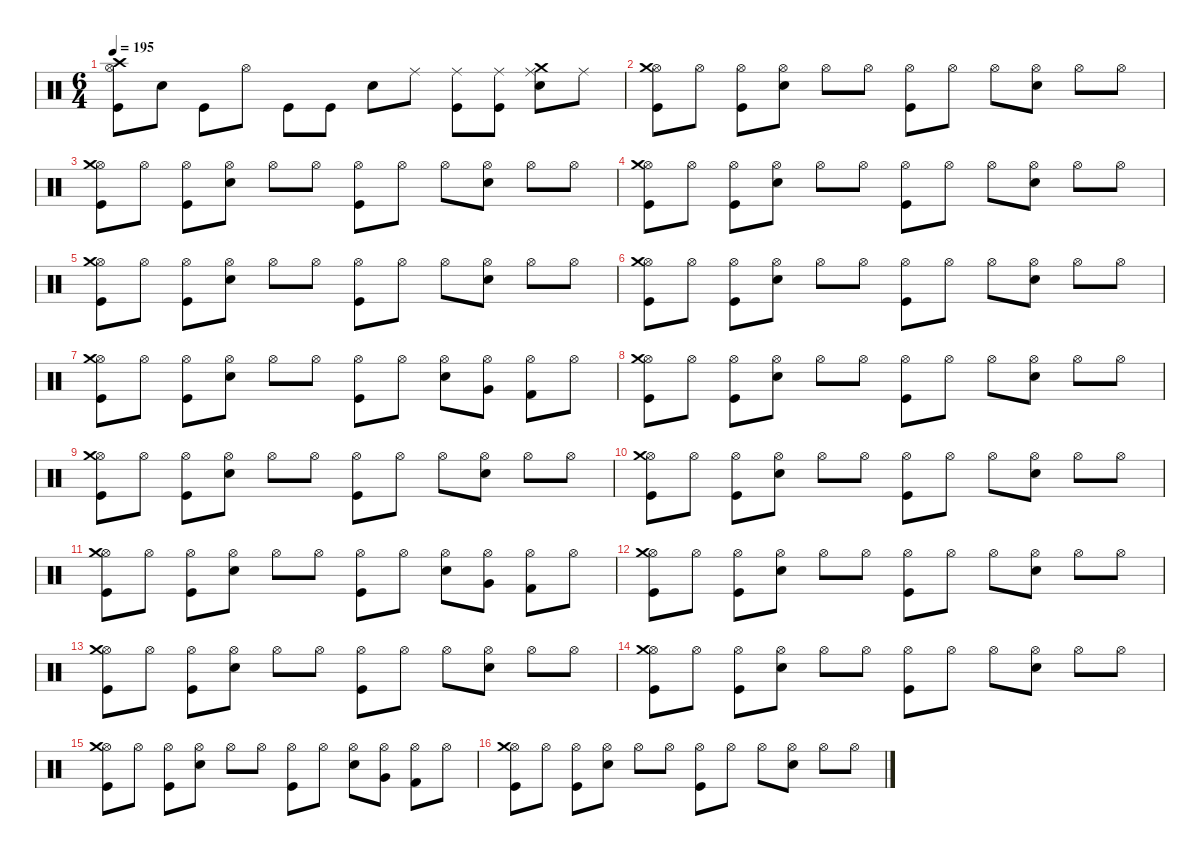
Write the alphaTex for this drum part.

\defaultSystemsLayout 4
\hideDynamics
\bracketExtendMode nobrackets
\singleTrackTrackNamePolicy hidden
\multiTrackTrackNamePolicy hidden
\firstSystemTrackNameMode fullname
\firstSystemTrackNameOrientation horizontal
\otherSystemsTrackNameOrientation horizontal
\track ("Percussion" "drm.") {defaultSystemsLayout 2 instrument percussion}
\staff {score}
\articulation defaults
\ts (6 4)
\tempo 195
\clef neutral
\ks c
("Crash high (hit)" "Hi-Hat (open)" "Kick (hit)").8{dy f beam Down} "Snare (hit) 2".8{beam Down} "Kick (hit)".8{beam Down} "Hi-Hat (open)".8{beam Down} "Kick (hit)".8{beam Down} "Kick (hit)".8{beam Down} "Snare (hit) 2".8{beam Down} "Ride (middle)".8{beam Down} ("Ride (middle)" "Kick (hit)").8{beam Down} ("Ride (middle)" "Kick (hit)").8{beam Down} ("Crash medium (hit)" "Ride (middle)" "Snare (hit) 2").8{beam Down} "Ride (middle)".8{beam Down} |
("Hi-Hat (open)" "Crash medium (hit)" "Kick (hit)").8{beam Down} "Hi-Hat (open)".8{beam Down} ("Hi-Hat (open)" "Kick (hit)").8{beam Down} ("Hi-Hat (open)" "Snare (hit) 2").8{beam Down} "Hi-Hat (open)".8{beam Down} "Hi-Hat (open)".8{beam Down} ("Hi-Hat (open)" "Kick (hit)").8{beam Down} "Hi-Hat (open)".8{beam Down} "Hi-Hat (open)".8{beam Down} ("Hi-Hat (open)" "Snare (hit) 2").8{beam Down} "Hi-Hat (open)".8{beam Down} "Hi-Hat (open)".8{beam Down} |
("Hi-Hat (open)" "Crash medium (hit)" "Kick (hit)").8{beam Down} "Hi-Hat (open)".8{beam Down} ("Hi-Hat (open)" "Kick (hit)").8{beam Down} ("Hi-Hat (open)" "Snare (hit) 2").8{beam Down} "Hi-Hat (open)".8{beam Down} "Hi-Hat (open)".8{beam Down} ("Hi-Hat (open)" "Kick (hit)").8{beam Down} "Hi-Hat (open)".8{beam Down} "Hi-Hat (open)".8{beam Down} ("Hi-Hat (open)" "Snare (hit) 2").8{beam Down} "Hi-Hat (open)".8{beam Down} "Hi-Hat (open)".8{beam Down} |
("Hi-Hat (open)" "Crash medium (hit)" "Kick (hit)").8{beam Down} "Hi-Hat (open)".8{beam Down} ("Hi-Hat (open)" "Kick (hit)").8{beam Down} ("Hi-Hat (open)" "Snare (hit) 2").8{beam Down} "Hi-Hat (open)".8{beam Down} "Hi-Hat (open)".8{beam Down} ("Hi-Hat (open)" "Kick (hit)").8{beam Down} "Hi-Hat (open)".8{beam Down} "Hi-Hat (open)".8{beam Down} ("Hi-Hat (open)" "Snare (hit) 2").8{beam Down} "Hi-Hat (open)".8{beam Down} "Hi-Hat (open)".8{beam Down} |
("Hi-Hat (open)" "Crash medium (hit)" "Kick (hit)").8{beam Down} "Hi-Hat (open)".8{beam Down} ("Hi-Hat (open)" "Kick (hit)").8{beam Down} ("Hi-Hat (open)" "Snare (hit) 2").8{beam Down} "Hi-Hat (open)".8{beam Down} "Hi-Hat (open)".8{beam Down} ("Hi-Hat (open)" "Kick (hit)").8{beam Down} "Hi-Hat (open)".8{beam Down} "Hi-Hat (open)".8{beam Down} ("Hi-Hat (open)" "Snare (hit) 2").8{beam Down} "Hi-Hat (open)".8{beam Down} "Hi-Hat (open)".8{beam Down} |
("Hi-Hat (open)" "Crash medium (hit)" "Kick (hit)").8{beam Down} "Hi-Hat (open)".8{beam Down} ("Hi-Hat (open)" "Kick (hit)").8{beam Down} ("Hi-Hat (open)" "Snare (hit) 2").8{beam Down} "Hi-Hat (open)".8{beam Down} "Hi-Hat (open)".8{beam Down} ("Hi-Hat (open)" "Kick (hit)").8{beam Down} "Hi-Hat (open)".8{beam Down} "Hi-Hat (open)".8{beam Down} ("Hi-Hat (open)" "Snare (hit) 2").8{beam Down} "Hi-Hat (open)".8{beam Down} "Hi-Hat (open)".8{beam Down} |
("Hi-Hat (open)" "Crash medium (hit)" "Kick (hit)").8{beam Down} "Hi-Hat (open)".8{beam Down} ("Hi-Hat (open)" "Kick (hit)").8{beam Down} ("Hi-Hat (open)" "Snare (hit) 2").8{beam Down} "Hi-Hat (open)".8{beam Down} "Hi-Hat (open)".8{beam Down} ("Hi-Hat (open)" "Kick (hit)").8{beam Down} "Hi-Hat (open)".8{beam Down} ("Hi-Hat (open)" "Snare (hit) 2").8{beam Down} ("Hi-Hat (open)" "Very Low Tom (hit)").8{beam Down} ("Hi-Hat (open)" "Kick (hit) 2").8{beam Down} "Hi-Hat (open)".8{beam Down} |
("Hi-Hat (open)" "Crash medium (hit)" "Kick (hit)").8{beam Down} "Hi-Hat (open)".8{beam Down} ("Hi-Hat (open)" "Kick (hit)").8{beam Down} ("Hi-Hat (open)" "Snare (hit) 2").8{beam Down} "Hi-Hat (open)".8{beam Down} "Hi-Hat (open)".8{beam Down} ("Hi-Hat (open)" "Kick (hit)").8{beam Down} "Hi-Hat (open)".8{beam Down} "Hi-Hat (open)".8{beam Down} ("Hi-Hat (open)" "Snare (hit) 2").8{beam Down} "Hi-Hat (open)".8{beam Down} "Hi-Hat (open)".8{beam Down} |
("Hi-Hat (open)" "Crash medium (hit)" "Kick (hit)").8{beam Down} "Hi-Hat (open)".8{beam Down} ("Hi-Hat (open)" "Kick (hit)").8{beam Down} ("Hi-Hat (open)" "Snare (hit) 2").8{beam Down} "Hi-Hat (open)".8{beam Down} "Hi-Hat (open)".8{beam Down} ("Hi-Hat (open)" "Kick (hit)").8{beam Down} "Hi-Hat (open)".8{beam Down} "Hi-Hat (open)".8{beam Down} ("Hi-Hat (open)" "Snare (hit) 2").8{beam Down} "Hi-Hat (open)".8{beam Down} "Hi-Hat (open)".8{beam Down} |
("Hi-Hat (open)" "Crash medium (hit)" "Kick (hit)").8{beam Down} "Hi-Hat (open)".8{beam Down} ("Hi-Hat (open)" "Kick (hit)").8{beam Down} ("Hi-Hat (open)" "Snare (hit) 2").8{beam Down} "Hi-Hat (open)".8{beam Down} "Hi-Hat (open)".8{beam Down} ("Hi-Hat (open)" "Kick (hit)").8{beam Down} "Hi-Hat (open)".8{beam Down} "Hi-Hat (open)".8{beam Down} ("Hi-Hat (open)" "Snare (hit) 2").8{beam Down} "Hi-Hat (open)".8{beam Down} "Hi-Hat (open)".8{beam Down} |
("Hi-Hat (open)" "Crash medium (hit)" "Kick (hit)").8{beam Down} "Hi-Hat (open)".8{beam Down} ("Hi-Hat (open)" "Kick (hit)").8{beam Down} ("Hi-Hat (open)" "Snare (hit) 2").8{beam Down} "Hi-Hat (open)".8{beam Down} "Hi-Hat (open)".8{beam Down} ("Hi-Hat (open)" "Kick (hit)").8{beam Down} "Hi-Hat (open)".8{beam Down} ("Hi-Hat (open)" "Snare (hit) 2").8{beam Down} ("Hi-Hat (open)" "Very Low Tom (hit)").8{beam Down} ("Hi-Hat (open)" "Kick (hit) 2").8{beam Down} "Hi-Hat (open)".8{beam Down} |
("Hi-Hat (open)" "Crash medium (hit)" "Kick (hit)").8{beam Down} "Hi-Hat (open)".8{beam Down} ("Hi-Hat (open)" "Kick (hit)").8{beam Down} ("Hi-Hat (open)" "Snare (hit) 2").8{beam Down} "Hi-Hat (open)".8{beam Down} "Hi-Hat (open)".8{beam Down} ("Hi-Hat (open)" "Kick (hit)").8{beam Down} "Hi-Hat (open)".8{beam Down} "Hi-Hat (open)".8{beam Down} ("Hi-Hat (open)" "Snare (hit) 2").8{beam Down} "Hi-Hat (open)".8{beam Down} "Hi-Hat (open)".8{beam Down} |
("Hi-Hat (open)" "Crash medium (hit)" "Kick (hit)").8{beam Down} "Hi-Hat (open)".8{beam Down} ("Hi-Hat (open)" "Kick (hit)").8{beam Down} ("Hi-Hat (open)" "Snare (hit) 2").8{beam Down} "Hi-Hat (open)".8{beam Down} "Hi-Hat (open)".8{beam Down} ("Hi-Hat (open)" "Kick (hit)").8{beam Down} "Hi-Hat (open)".8{beam Down} "Hi-Hat (open)".8{beam Down} ("Hi-Hat (open)" "Snare (hit) 2").8{beam Down} "Hi-Hat (open)".8{beam Down} "Hi-Hat (open)".8{beam Down} |
("Hi-Hat (open)" "Crash medium (hit)" "Kick (hit)").8{beam Down} "Hi-Hat (open)".8{beam Down} ("Hi-Hat (open)" "Kick (hit)").8{beam Down} ("Hi-Hat (open)" "Snare (hit) 2").8{beam Down} "Hi-Hat (open)".8{beam Down} "Hi-Hat (open)".8{beam Down} ("Hi-Hat (open)" "Kick (hit)").8{beam Down} "Hi-Hat (open)".8{beam Down} "Hi-Hat (open)".8{beam Down} ("Hi-Hat (open)" "Snare (hit) 2").8{beam Down} "Hi-Hat (open)".8{beam Down} "Hi-Hat (open)".8{beam Down} |
("Hi-Hat (open)" "Crash medium (hit)" "Kick (hit)").8{beam Down} "Hi-Hat (open)".8{beam Down} ("Hi-Hat (open)" "Kick (hit)").8{beam Down} ("Hi-Hat (open)" "Snare (hit) 2").8{beam Down} "Hi-Hat (open)".8{beam Down} "Hi-Hat (open)".8{beam Down} ("Hi-Hat (open)" "Kick (hit)").8{beam Down} "Hi-Hat (open)".8{beam Down} ("Hi-Hat (open)" "Snare (hit) 2").8{beam Down} ("Hi-Hat (open)" "Very Low Tom (hit)").8{beam Down} ("Hi-Hat (open)" "Kick (hit) 2").8{beam Down} "Hi-Hat (open)".8{beam Down} |
("Hi-Hat (open)" "Crash medium (hit)" "Kick (hit)").8{beam Down} "Hi-Hat (open)".8{beam Down} ("Hi-Hat (open)" "Kick (hit)").8{beam Down} ("Hi-Hat (open)" "Snare (hit) 2").8{beam Down} "Hi-Hat (open)".8{beam Down} "Hi-Hat (open)".8{beam Down} ("Hi-Hat (open)" "Kick (hit)").8{beam Down} "Hi-Hat (open)".8{beam Down} "Hi-Hat (open)".8{beam Down} ("Hi-Hat (open)" "Snare (hit) 2").8{beam Down} "Hi-Hat (open)".8{beam Down} "Hi-Hat (open)".8{beam Down}
